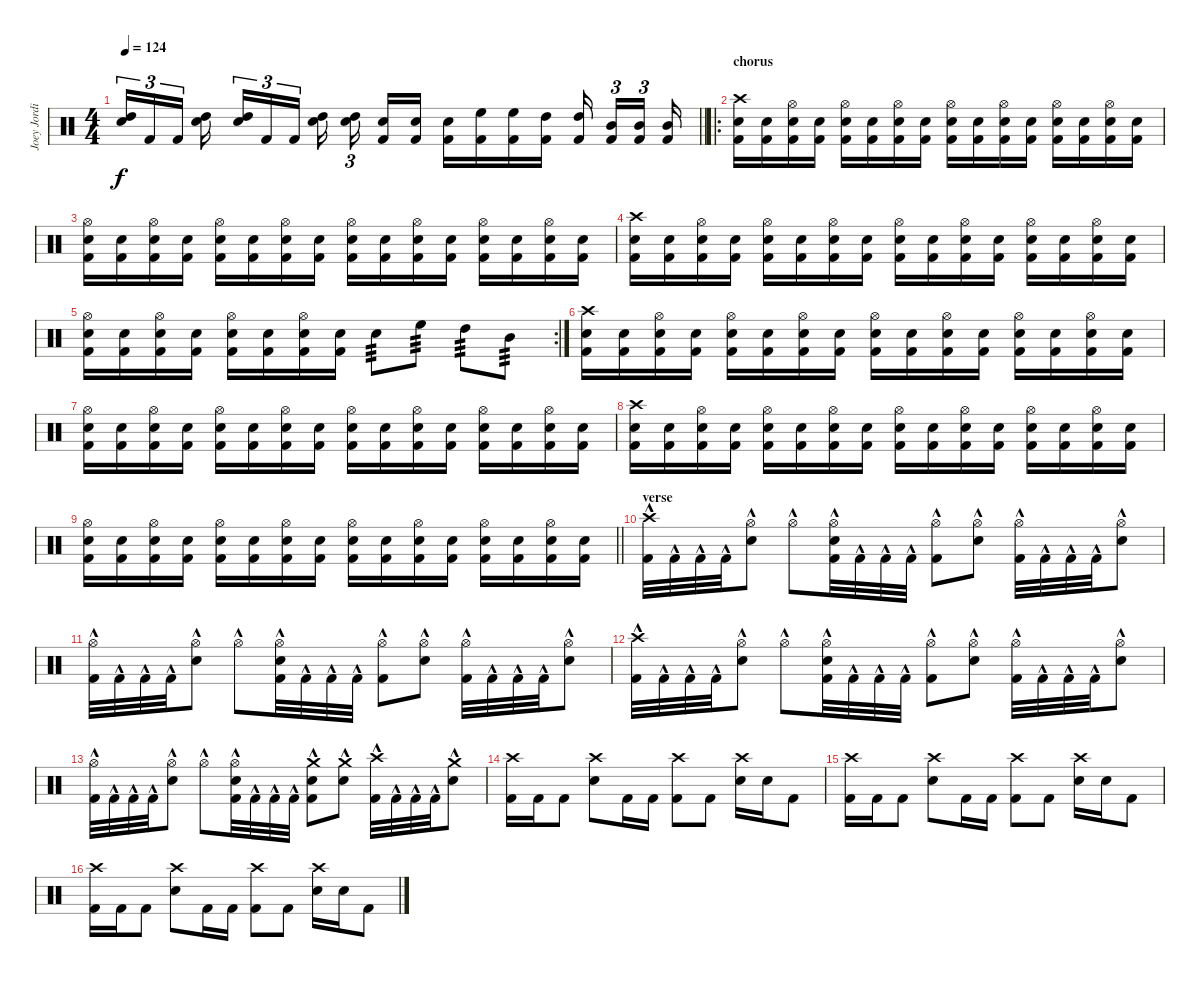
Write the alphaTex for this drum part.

\track ("Joey Jordison" "Joey Jordi") {instrument percussion}
\staff
\articulation defaults
\ts (4 4)
\tempo 124
\clef neutral
\barLineRight lightlight
\ks c
("High Tom (hit)" "Electric Snare (hit)").16{tu (3 2) dy f} "Kick (hit) 2".16{tu (3 2)} "Kick (hit) 2".16{tu (3 2) beam splitsecondary} ("High Tom (hit)" "Electric Snare (hit)").16{beam splitsecondary} ("High Tom (hit)" "Electric Snare (hit)").16{tu (3 2)} "Kick (hit) 2".16{tu (3 2)} "Kick (hit) 2".16{tu (3 2) beam splitsecondary} ("High Tom (hit)" "Electric Snare (hit)").16{beam splitsecondary} ("High Tom (hit)" "Electric Snare (hit)").16{tu (3 2) beam splitsecondary} ("Electric Snare (hit)" "Kick (hit) 2").16 ("Electric Snare (hit)" "Kick (hit) 2").16 ("Electric Snare (hit)" "Kick (hit) 2").16 ("High Floor Tom (hit)" "Kick (hit) 2").16 ("High Floor Tom (hit)" "Kick (hit) 2").16 ("High Tom (hit)" "Kick (hit) 2").16 ("High Tom (hit)" "Kick (hit) 2").16{beam splitsecondary} ("Mid Tom (hit)" "Kick (hit) 2").16{tu (3 2)} ("Mid Tom (hit)" "Kick (hit) 2").16{tu (3 2) beam splitsecondary} ("Mid Tom (hit)" "Kick (hit) 2").16 |
\ro
\section ("" "chorus")
("Crash high (hit)" "Electric Snare (hit)" "Kick (hit) 2").16 ("Electric Snare (hit)" "Kick (hit) 2").16 ("Hi-Hat (open)" "Electric Snare (hit)" "Kick (hit) 2").16 ("Electric Snare (hit)" "Kick (hit) 2").16 ("Hi-Hat (open)" "Electric Snare (hit)" "Kick (hit) 2").16 ("Electric Snare (hit)" "Kick (hit) 2").16 ("Hi-Hat (open)" "Electric Snare (hit)" "Kick (hit) 2").16 ("Electric Snare (hit)" "Kick (hit) 2").16 ("Hi-Hat (open)" "Electric Snare (hit)" "Kick (hit) 2").16 ("Electric Snare (hit)" "Kick (hit) 2").16 ("Hi-Hat (open)" "Electric Snare (hit)" "Kick (hit) 2").16 ("Electric Snare (hit)" "Kick (hit) 2").16 ("Hi-Hat (open)" "Electric Snare (hit)" "Kick (hit) 2").16 ("Electric Snare (hit)" "Kick (hit) 2").16 ("Hi-Hat (open)" "Electric Snare (hit)" "Kick (hit) 2").16 ("Electric Snare (hit)" "Kick (hit) 2").16 |
("Hi-Hat (open)" "Electric Snare (hit)" "Kick (hit) 2").16 ("Electric Snare (hit)" "Kick (hit) 2").16 ("Hi-Hat (open)" "Electric Snare (hit)" "Kick (hit) 2").16 ("Electric Snare (hit)" "Kick (hit) 2").16 ("Hi-Hat (open)" "Electric Snare (hit)" "Kick (hit) 2").16 ("Electric Snare (hit)" "Kick (hit) 2").16 ("Hi-Hat (open)" "Electric Snare (hit)" "Kick (hit) 2").16 ("Electric Snare (hit)" "Kick (hit) 2").16 ("Hi-Hat (open)" "Electric Snare (hit)" "Kick (hit) 2").16 ("Electric Snare (hit)" "Kick (hit) 2").16 ("Hi-Hat (open)" "Electric Snare (hit)" "Kick (hit) 2").16 ("Electric Snare (hit)" "Kick (hit) 2").16 ("Hi-Hat (open)" "Electric Snare (hit)" "Kick (hit) 2").16 ("Electric Snare (hit)" "Kick (hit) 2").16 ("Hi-Hat (open)" "Electric Snare (hit)" "Kick (hit) 2").16 ("Electric Snare (hit)" "Kick (hit) 2").16 |
("Crash high (hit)" "Electric Snare (hit)" "Kick (hit) 2").16 ("Electric Snare (hit)" "Kick (hit) 2").16 ("Hi-Hat (open)" "Electric Snare (hit)" "Kick (hit) 2").16 ("Electric Snare (hit)" "Kick (hit) 2").16 ("Hi-Hat (open)" "Electric Snare (hit)" "Kick (hit) 2").16 ("Electric Snare (hit)" "Kick (hit) 2").16 ("Hi-Hat (open)" "Electric Snare (hit)" "Kick (hit) 2").16 ("Electric Snare (hit)" "Kick (hit) 2").16 ("Hi-Hat (open)" "Electric Snare (hit)" "Kick (hit) 2").16 ("Electric Snare (hit)" "Kick (hit) 2").16 ("Hi-Hat (open)" "Electric Snare (hit)" "Kick (hit) 2").16 ("Electric Snare (hit)" "Kick (hit) 2").16 ("Hi-Hat (open)" "Electric Snare (hit)" "Kick (hit) 2").16 ("Electric Snare (hit)" "Kick (hit) 2").16 ("Hi-Hat (open)" "Electric Snare (hit)" "Kick (hit) 2").16 ("Electric Snare (hit)" "Kick (hit) 2").16 |
\rc 2
("Hi-Hat (open)" "Electric Snare (hit)" "Kick (hit) 2").16 ("Electric Snare (hit)" "Kick (hit) 2").16 ("Hi-Hat (open)" "Electric Snare (hit)" "Kick (hit) 2").16 ("Electric Snare (hit)" "Kick (hit) 2").16 ("Hi-Hat (open)" "Electric Snare (hit)" "Kick (hit) 2").16 ("Electric Snare (hit)" "Kick (hit) 2").16 ("Hi-Hat (open)" "Electric Snare (hit)" "Kick (hit) 2").16 ("Electric Snare (hit)" "Kick (hit) 2").16 "Electric Snare (hit)".8{tp 3} "High Floor Tom (hit)".8{tp 3} "High Tom (hit)".8{tp 3} "Mid Tom (hit)".8{tp 3} |
("Crash high (hit)" "Electric Snare (hit)" "Kick (hit) 2").16 ("Electric Snare (hit)" "Kick (hit) 2").16 ("Hi-Hat (open)" "Electric Snare (hit)" "Kick (hit) 2").16 ("Electric Snare (hit)" "Kick (hit) 2").16 ("Hi-Hat (open)" "Electric Snare (hit)" "Kick (hit) 2").16 ("Electric Snare (hit)" "Kick (hit) 2").16 ("Hi-Hat (open)" "Electric Snare (hit)" "Kick (hit) 2").16 ("Electric Snare (hit)" "Kick (hit) 2").16 ("Hi-Hat (open)" "Electric Snare (hit)" "Kick (hit) 2").16 ("Electric Snare (hit)" "Kick (hit) 2").16 ("Hi-Hat (open)" "Electric Snare (hit)" "Kick (hit) 2").16 ("Electric Snare (hit)" "Kick (hit) 2").16 ("Hi-Hat (open)" "Electric Snare (hit)" "Kick (hit) 2").16 ("Electric Snare (hit)" "Kick (hit) 2").16 ("Hi-Hat (open)" "Electric Snare (hit)" "Kick (hit) 2").16 ("Electric Snare (hit)" "Kick (hit) 2").16 |
("Hi-Hat (open)" "Electric Snare (hit)" "Kick (hit) 2").16 ("Electric Snare (hit)" "Kick (hit) 2").16 ("Hi-Hat (open)" "Electric Snare (hit)" "Kick (hit) 2").16 ("Electric Snare (hit)" "Kick (hit) 2").16 ("Hi-Hat (open)" "Electric Snare (hit)" "Kick (hit) 2").16 ("Electric Snare (hit)" "Kick (hit) 2").16 ("Hi-Hat (open)" "Electric Snare (hit)" "Kick (hit) 2").16 ("Electric Snare (hit)" "Kick (hit) 2").16 ("Hi-Hat (open)" "Electric Snare (hit)" "Kick (hit) 2").16 ("Electric Snare (hit)" "Kick (hit) 2").16 ("Hi-Hat (open)" "Electric Snare (hit)" "Kick (hit) 2").16 ("Electric Snare (hit)" "Kick (hit) 2").16 ("Hi-Hat (open)" "Electric Snare (hit)" "Kick (hit) 2").16 ("Electric Snare (hit)" "Kick (hit) 2").16 ("Hi-Hat (open)" "Electric Snare (hit)" "Kick (hit) 2").16 ("Electric Snare (hit)" "Kick (hit) 2").16 |
("Crash high (hit)" "Electric Snare (hit)" "Kick (hit) 2").16 ("Electric Snare (hit)" "Kick (hit) 2").16 ("Hi-Hat (open)" "Electric Snare (hit)" "Kick (hit) 2").16 ("Electric Snare (hit)" "Kick (hit) 2").16 ("Hi-Hat (open)" "Electric Snare (hit)" "Kick (hit) 2").16 ("Electric Snare (hit)" "Kick (hit) 2").16 ("Hi-Hat (open)" "Electric Snare (hit)" "Kick (hit) 2").16 ("Electric Snare (hit)" "Kick (hit) 2").16 ("Hi-Hat (open)" "Electric Snare (hit)" "Kick (hit) 2").16 ("Electric Snare (hit)" "Kick (hit) 2").16 ("Hi-Hat (open)" "Electric Snare (hit)" "Kick (hit) 2").16 ("Electric Snare (hit)" "Kick (hit) 2").16 ("Hi-Hat (open)" "Electric Snare (hit)" "Kick (hit) 2").16 ("Electric Snare (hit)" "Kick (hit) 2").16 ("Hi-Hat (open)" "Electric Snare (hit)" "Kick (hit) 2").16 ("Electric Snare (hit)" "Kick (hit) 2").16 |
\barLineRight lightlight
("Hi-Hat (open)" "Electric Snare (hit)" "Kick (hit) 2").16 ("Electric Snare (hit)" "Kick (hit) 2").16 ("Hi-Hat (open)" "Electric Snare (hit)" "Kick (hit) 2").16 ("Electric Snare (hit)" "Kick (hit) 2").16 ("Hi-Hat (open)" "Electric Snare (hit)" "Kick (hit) 2").16 ("Electric Snare (hit)" "Kick (hit) 2").16 ("Hi-Hat (open)" "Electric Snare (hit)" "Kick (hit) 2").16 ("Electric Snare (hit)" "Kick (hit) 2").16 ("Hi-Hat (open)" "Electric Snare (hit)" "Kick (hit) 2").16 ("Electric Snare (hit)" "Kick (hit) 2").16 ("Hi-Hat (open)" "Electric Snare (hit)" "Kick (hit) 2").16 ("Electric Snare (hit)" "Kick (hit) 2").16 ("Hi-Hat (open)" "Electric Snare (hit)" "Kick (hit) 2").16 ("Electric Snare (hit)" "Kick (hit) 2").16 ("Hi-Hat (open)" "Electric Snare (hit)" "Kick (hit) 2").16 ("Electric Snare (hit)" "Kick (hit) 2").16 |
\section ("" "verse")
("Crash high (hit)"{hac} "Kick (hit) 2"{hac}).32 "Kick (hit) 2"{hac}.32 "Kick (hit) 2"{hac}.32 "Kick (hit) 2"{hac}.32 ("Hi-Hat (open)"{hac} "Electric Snare (hit)"{hac}).8 "Hi-Hat (open)"{hac}.8 ("Hi-Hat (open)"{hac} "Electric Snare (hit)"{hac} "Kick (hit) 2"{hac}).32 "Kick (hit) 2"{hac}.32 "Kick (hit) 2"{hac}.32 "Kick (hit) 2"{hac}.32 ("Hi-Hat (open)"{hac} "Kick (hit) 2"{hac}).8 ("Hi-Hat (open)"{hac} "Electric Snare (hit)"{hac}).8 ("Hi-Hat (open)"{hac} "Kick (hit) 2"{hac}).32 "Kick (hit) 2"{hac}.32 "Kick (hit) 2"{hac}.32 "Kick (hit) 2"{hac}.32 ("Hi-Hat (open)"{hac} "Electric Snare (hit)"{hac}).8 |
("Hi-Hat (open)"{hac} "Kick (hit) 2"{hac}).32 "Kick (hit) 2"{hac}.32 "Kick (hit) 2"{hac}.32 "Kick (hit) 2"{hac}.32 ("Hi-Hat (open)"{hac} "Electric Snare (hit)"{hac}).8 "Hi-Hat (open)"{hac}.8 ("Hi-Hat (open)"{hac} "Electric Snare (hit)"{hac} "Kick (hit) 2"{hac}).32 "Kick (hit) 2"{hac}.32 "Kick (hit) 2"{hac}.32 "Kick (hit) 2"{hac}.32 ("Hi-Hat (open)"{hac} "Kick (hit) 2"{hac}).8 ("Hi-Hat (open)"{hac} "Electric Snare (hit)"{hac}).8 ("Hi-Hat (open)"{hac} "Kick (hit) 2"{hac}).32 "Kick (hit) 2"{hac}.32 "Kick (hit) 2"{hac}.32 "Kick (hit) 2"{hac}.32 ("Hi-Hat (open)"{hac} "Electric Snare (hit)"{hac}).8 |
("Crash high (hit)"{hac} "Kick (hit) 2"{hac}).32 "Kick (hit) 2"{hac}.32 "Kick (hit) 2"{hac}.32 "Kick (hit) 2"{hac}.32 ("Hi-Hat (open)"{hac} "Electric Snare (hit)"{hac}).8 "Hi-Hat (open)"{hac}.8 ("Hi-Hat (open)"{hac} "Electric Snare (hit)"{hac} "Kick (hit) 2"{hac}).32 "Kick (hit) 2"{hac}.32 "Kick (hit) 2"{hac}.32 "Kick (hit) 2"{hac}.32 ("Hi-Hat (open)"{hac} "Kick (hit) 2"{hac}).8 ("Hi-Hat (open)"{hac} "Electric Snare (hit)"{hac}).8 ("Hi-Hat (open)"{hac} "Kick (hit) 2"{hac}).32 "Kick (hit) 2"{hac}.32 "Kick (hit) 2"{hac}.32 "Kick (hit) 2"{hac}.32 ("Hi-Hat (open)"{hac} "Electric Snare (hit)"{hac}).8 |
("Hi-Hat (open)"{hac} "Kick (hit) 2"{hac}).32 "Kick (hit) 2"{hac}.32 "Kick (hit) 2"{hac}.32 "Kick (hit) 2"{hac}.32 ("Hi-Hat (open)"{hac} "Electric Snare (hit)"{hac}).8 "Hi-Hat (open)"{hac}.8 ("Hi-Hat (open)"{hac} "Electric Snare (hit)"{hac} "Kick (hit) 2"{hac}).32 "Kick (hit) 2"{hac}.32 "Kick (hit) 2"{hac}.32 "Kick (hit) 2"{hac}.32 ("Crash medium (hit)"{hac} "Electric Snare (hit)" "Kick (hit) 2"{hac}).8 ("Crash medium (hit)"{hac} "Electric Snare (hit)"{hac}).8 ("Crash high (hit)"{hac} "Kick (hit) 2"{hac}).32 "Kick (hit) 2"{hac}.32 "Kick (hit) 2"{hac}.32 "Kick (hit) 2"{hac}.32 ("Crash medium (hit)"{hac} "Electric Snare (hit)"{hac}).8 |
("Crash high (hit)" "Kick (hit) 2").16 "Kick (hit) 2".16 "Kick (hit) 2".8 ("Crash high (hit)" "Electric Snare (hit)").8 "Kick (hit) 2".16 "Kick (hit) 2".16 ("Crash high (hit)" "Kick (hit) 2").8 "Kick (hit) 2".8 ("Crash high (hit)" "Electric Snare (hit)").16 "Electric Snare (hit)".16 "Kick (hit) 2".8 |
("Crash high (hit)" "Kick (hit) 2").16 "Kick (hit) 2".16 "Kick (hit) 2".8 ("Crash high (hit)" "Electric Snare (hit)").8 "Kick (hit) 2".16 "Kick (hit) 2".16 ("Crash high (hit)" "Kick (hit) 2").8 "Kick (hit) 2".8 ("Crash high (hit)" "Electric Snare (hit)").16 "Electric Snare (hit)".16 "Kick (hit) 2".8 |
("Crash high (hit)" "Kick (hit) 2").16 "Kick (hit) 2".16 "Kick (hit) 2".8 ("Crash high (hit)" "Electric Snare (hit)").8 "Kick (hit) 2".16 "Kick (hit) 2".16 ("Crash high (hit)" "Kick (hit) 2").8 "Kick (hit) 2".8 ("Crash high (hit)" "Electric Snare (hit)").16 "Electric Snare (hit)".16 "Kick (hit) 2".8
